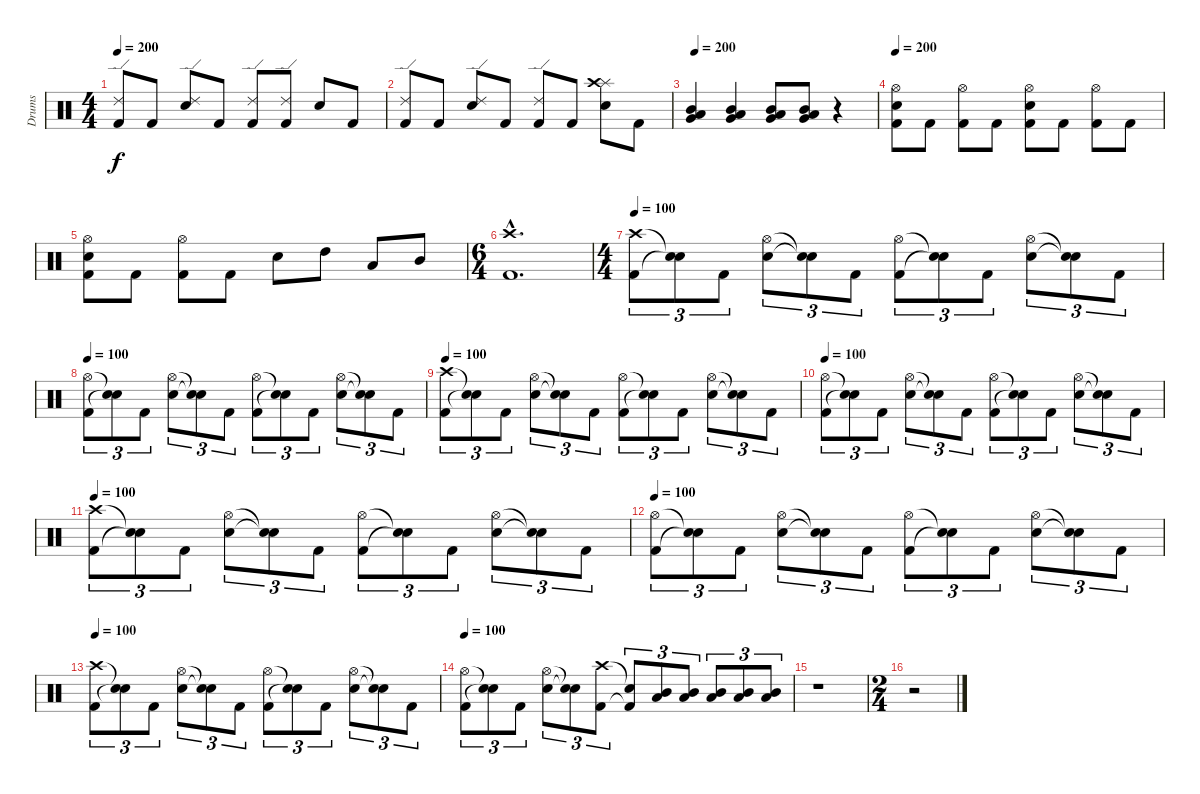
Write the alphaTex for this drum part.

\track ("Drums" "Drums") {instrument percussion}
\staff {score}
\articulation defaults
\ts (4 4)
\tempo 200
\clef neutral
\ks c
("Kick (hit) 2" "Ride (edge) 2").8{dy f} "Kick (hit) 2".8 ("Electric Snare (hit)" "Ride (edge) 2").8 "Kick (hit) 2".8 ("Kick (hit) 2" "Ride (edge) 2").8 ("Kick (hit) 2" "Ride (edge) 2").8 "Electric Snare (hit)".8 "Kick (hit) 2".8 |
("Kick (hit) 2" "Ride (edge) 2").8 "Kick (hit) 2".8 ("Electric Snare (hit)" "Ride (edge) 2").8 "Kick (hit) 2".8 ("Kick (hit) 2" "Ride (edge) 2").8 "Kick (hit) 2".8 ("Electric Snare (hit)" "Splash (hit)" "Crash high (hit)").8 "Kick (hit) 2".8 |
\tempo 200
("Low Tom (hit)" "Mid Tom (hit)" "Very Low Tom (hit)").4 ("Low Tom (hit)" "Mid Tom (hit)" "Very Low Tom (hit)").4 ("Low Tom (hit)" "Mid Tom (hit)" "Very Low Tom (hit)").8 ("Low Tom (hit)" "Mid Tom (hit)" "Very Low Tom (hit)").8 r.4 |
\tempo 200
("Kick (hit) 2" "Electric Snare (hit)" "Hi-Hat (open)").8 "Kick (hit) 2".8 ("Kick (hit) 2" "Hi-Hat (open)").8 "Kick (hit) 2".8 ("Kick (hit) 2" "Electric Snare (hit)" "Hi-Hat (open)").8 "Kick (hit) 2".8 ("Kick (hit) 2" "Hi-Hat (open)").8 "Kick (hit) 2".8 |
("Kick (hit) 2" "Electric Snare (hit)" "Hi-Hat (open)").8 "Kick (hit) 2".8 ("Kick (hit) 2" "Hi-Hat (open)").8 "Kick (hit) 2".8 "Electric Snare (hit)".8 "High Tom (hit)".8 "Low Tom (hit)".8 "Mid Tom (hit)".8 |
\ts (6 4)
("Kick (hit) 2"{hac} "Crash high (hit)"{hac}).1{d} |
\ts (4 4)
\tempo 100
("Kick (hit) 2" "Crash high (hit)").8{tu (3 2)} ("Snare (hit)"{t} "Snare (hit)"{t}).8{tu (3 2)} "Kick (hit) 2".8{tu (3 2)} ("Electric Snare (hit)" "Hi-Hat (open)").8{tu (3 2)} ("Snare (hit)"{t} "Snare (hit)"{t}).8{tu (3 2)} "Kick (hit) 2".8{tu (3 2)} ("Kick (hit) 2" "Hi-Hat (open)").8{tu (3 2)} ("Snare (hit)"{t} "Snare (hit)"{t}).8{tu (3 2)} "Kick (hit) 2".8{tu (3 2)} ("Electric Snare (hit)" "Hi-Hat (open)").8{tu (3 2)} ("Snare (hit)"{t} "Snare (hit)"{t}).8{tu (3 2)} "Kick (hit) 2".8{tu (3 2)} |
\tempo 100
("Kick (hit) 2" "Hi-Hat (open)").8{tu (3 2)} ("Snare (hit)"{t} "Snare (hit)"{t}).8{tu (3 2)} "Kick (hit) 2".8{tu (3 2)} ("Electric Snare (hit)" "Hi-Hat (open)").8{tu (3 2)} ("Snare (hit)"{t} "Snare (hit)"{t}).8{tu (3 2)} "Kick (hit) 2".8{tu (3 2)} ("Kick (hit) 2" "Hi-Hat (open)").8{tu (3 2)} ("Snare (hit)"{t} "Snare (hit)"{t}).8{tu (3 2)} "Kick (hit) 2".8{tu (3 2)} ("Electric Snare (hit)" "Hi-Hat (open)").8{tu (3 2)} ("Snare (hit)"{t} "Snare (hit)"{t}).8{tu (3 2)} "Kick (hit) 2".8{tu (3 2)} |
\tempo 100
("Kick (hit) 2" "Crash high (hit)").8{tu (3 2)} ("Snare (hit)"{t} "Snare (hit)"{t}).8{tu (3 2)} "Kick (hit) 2".8{tu (3 2)} ("Electric Snare (hit)" "Hi-Hat (open)").8{tu (3 2)} ("Snare (hit)"{t} "Snare (hit)"{t}).8{tu (3 2)} "Kick (hit) 2".8{tu (3 2)} ("Kick (hit) 2" "Hi-Hat (open)").8{tu (3 2)} ("Snare (hit)"{t} "Snare (hit)"{t}).8{tu (3 2)} "Kick (hit) 2".8{tu (3 2)} ("Electric Snare (hit)" "Hi-Hat (open)").8{tu (3 2)} ("Snare (hit)"{t} "Snare (hit)"{t}).8{tu (3 2)} "Kick (hit) 2".8{tu (3 2)} |
\tempo 100
("Kick (hit) 2" "Hi-Hat (open)").8{tu (3 2)} ("Snare (hit)"{t} "Snare (hit)"{t}).8{tu (3 2)} "Kick (hit) 2".8{tu (3 2)} ("Electric Snare (hit)" "Hi-Hat (open)").8{tu (3 2)} ("Snare (hit)"{t} "Snare (hit)"{t}).8{tu (3 2)} "Kick (hit) 2".8{tu (3 2)} ("Kick (hit) 2" "Hi-Hat (open)").8{tu (3 2)} ("Snare (hit)"{t} "Snare (hit)"{t}).8{tu (3 2)} "Kick (hit) 2".8{tu (3 2)} ("Electric Snare (hit)" "Hi-Hat (open)").8{tu (3 2)} ("Snare (hit)"{t} "Snare (hit)"{t}).8{tu (3 2)} "Kick (hit) 2".8{tu (3 2)} |
\tempo 100
("Kick (hit) 2" "Crash high (hit)").8{tu (3 2)} ("Snare (hit)"{t} "Snare (hit)"{t}).8{tu (3 2)} "Kick (hit) 2".8{tu (3 2)} ("Electric Snare (hit)" "Hi-Hat (open)").8{tu (3 2)} ("Snare (hit)"{t} "Snare (hit)"{t}).8{tu (3 2)} "Kick (hit) 2".8{tu (3 2)} ("Kick (hit) 2" "Hi-Hat (open)").8{tu (3 2)} ("Snare (hit)"{t} "Snare (hit)"{t}).8{tu (3 2)} "Kick (hit) 2".8{tu (3 2)} ("Electric Snare (hit)" "Hi-Hat (open)").8{tu (3 2)} ("Snare (hit)"{t} "Snare (hit)"{t}).8{tu (3 2)} "Kick (hit) 2".8{tu (3 2)} |
\tempo 100
("Kick (hit) 2" "Hi-Hat (open)").8{tu (3 2)} ("Snare (hit)"{t} "Snare (hit)"{t}).8{tu (3 2)} "Kick (hit) 2".8{tu (3 2)} ("Electric Snare (hit)" "Hi-Hat (open)").8{tu (3 2)} ("Snare (hit)"{t} "Snare (hit)"{t}).8{tu (3 2)} "Kick (hit) 2".8{tu (3 2)} ("Kick (hit) 2" "Hi-Hat (open)").8{tu (3 2)} ("Snare (hit)"{t} "Snare (hit)"{t}).8{tu (3 2)} "Kick (hit) 2".8{tu (3 2)} ("Electric Snare (hit)" "Hi-Hat (open)").8{tu (3 2)} ("Snare (hit)"{t} "Snare (hit)"{t}).8{tu (3 2)} "Kick (hit) 2".8{tu (3 2)} |
\tempo 100
("Kick (hit) 2" "Crash high (hit)").8{tu (3 2)} ("Snare (hit)"{t} "Snare (hit)"{t}).8{tu (3 2)} "Kick (hit) 2".8{tu (3 2)} ("Electric Snare (hit)" "Hi-Hat (open)").8{tu (3 2)} ("Snare (hit)"{t} "Snare (hit)"{t}).8{tu (3 2)} "Kick (hit) 2".8{tu (3 2)} ("Kick (hit) 2" "Hi-Hat (open)").8{tu (3 2)} ("Snare (hit)"{t} "Snare (hit)"{t}).8{tu (3 2)} "Kick (hit) 2".8{tu (3 2)} ("Electric Snare (hit)" "Hi-Hat (open)").8{tu (3 2)} ("Snare (hit)"{t} "Snare (hit)"{t}).8{tu (3 2)} "Kick (hit) 2".8{tu (3 2)} |
\tempo 100
("Kick (hit) 2" "Hi-Hat (open)").8{tu (3 2)} ("Snare (hit)"{t} "Snare (hit)"{t}).8{tu (3 2)} "Kick (hit) 2".8{tu (3 2)} ("Electric Snare (hit)" "Hi-Hat (open)").8{tu (3 2)} ("Snare (hit)"{t} "Snare (hit)"{t}).8{tu (3 2)} ("Kick (hit) 2" "Crash high (hit)").8{tu (3 2)} ("Kick (hit) 2"{t} "Snare (hit)"{t}).8{tu (3 2)} ("Mid Tom (hit)" "Low Tom (hit)").8{tu (3 2)} ("Mid Tom (hit)" "Low Tom (hit)").8{tu (3 2)} ("Mid Tom (hit)" "Low Tom (hit)").8{tu (3 2)} ("Mid Tom (hit)" "Low Tom (hit)").8{tu (3 2)} ("Mid Tom (hit)" "Low Tom (hit)").8{tu (3 2)} |
r.1 |
\ts (2 4)
r.2
